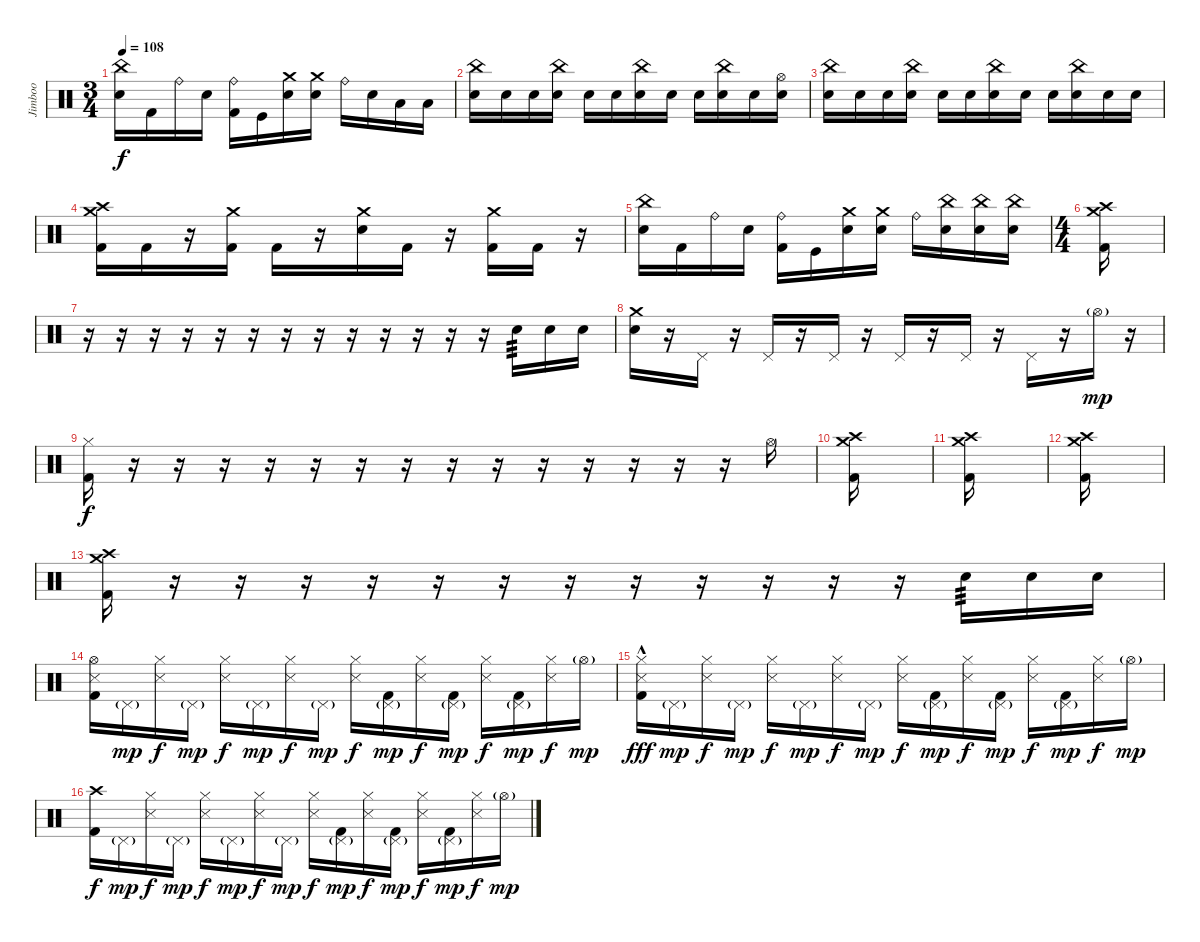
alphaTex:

\track ("Jimboo" "Jimboo") {instrument percussion}
\staff
\articulation defaults
\ts (3 4)
\tempo 108
\clef neutral
\ks c
("Electric Snare (hit)" "China (hit)").16{dy f} "Kick (hit) 2".16 "Ride (bell)".16 "Electric Snare (hit)".16 ("Kick (hit) 2" "Ride (bell)").16 "Kick (hit)".16 ("Electric Snare (hit)" "Crash medium (hit)").16 ("Electric Snare (hit)" "Crash medium (hit)").16 "Ride (bell)".16 "Electric Snare (hit)".16 "Low Tom (hit)".16 "Low Floor Tom (hit)".16 |
("Electric Snare (hit)" "China (hit)").16 "Electric Snare (hit)".16 "Electric Snare (hit)".16 ("Electric Snare (hit)" "China (hit)").16 "Electric Snare (hit)".16 "Electric Snare (hit)".16 ("Electric Snare (hit)" "China (hit)").16 "Electric Snare (hit)".16 "Electric Snare (hit)".16 ("Electric Snare (hit)" "China (hit)").16 "Electric Snare (hit)".16 ("Electric Snare (hit)" "Hi-Hat (open)").16 |
("Electric Snare (hit)" "China (hit)").16 "Electric Snare (hit)".16 "Electric Snare (hit)".16 ("Electric Snare (hit)" "China (hit)").16 "Electric Snare (hit)".16 "Electric Snare (hit)".16 ("Electric Snare (hit)" "China (hit)").16 "Electric Snare (hit)".16 "Electric Snare (hit)".16 ("Electric Snare (hit)" "China (hit)").16 "Electric Snare (hit)".16 "Electric Snare (hit)".16 |
("Kick (hit) 2" "Crash medium (hit)" "Crash high (hit)").16 "Kick (hit) 2".16 r.16 ("Kick (hit) 2" "Crash medium (hit)").16 "Kick (hit) 2".16 r.16 ("Electric Snare (hit)" "Crash medium (hit)").16 "Kick (hit) 2".16 r.16 ("Kick (hit) 2" "Crash medium (hit)").16 "Kick (hit) 2".16 r.16 |
("Electric Snare (hit)" "China (hit)").16 "Kick (hit) 2".16 "Ride (bell)".16 "Electric Snare (hit)".16 ("Kick (hit) 2" "Ride (bell)").16 "Kick (hit)".16 ("Electric Snare (hit)" "Crash medium (hit)").16 ("Electric Snare (hit)" "Crash medium (hit)").16 "Ride (bell)".16 ("Electric Snare (hit)" "China (hit)").16 ("Electric Snare (hit)" "China (hit)").16 ("Electric Snare (hit)" "China (hit)").16 |
\ts (4 4)
("Kick (hit) 2" "Crash medium (hit)" "Crash high (hit)").16 |
r.16 r.16 r.16 r.16 r.16 r.16 r.16 r.16 r.16 r.16 r.16 r.16 r.16 "Electric Snare (hit)".16{tp 3} "Electric Snare (hit)".16 "Electric Snare (hit)".16 |
("Electric Snare (hit)" "Crash medium (hit)").16 r.16 "Pedal Hi-Hat (hit)".16 r.16 "Pedal Hi-Hat (hit)".16 r.16 "Pedal Hi-Hat (hit)".16 r.16 "Pedal Hi-Hat (hit)".16 r.16 "Pedal Hi-Hat (hit)".16 r.16 "Pedal Hi-Hat (hit)".16 r.16 "Hi-Hat (open)"{g}.16{dy mp} r.16 |
("Kick (hit) 2" "Hi-Hat (closed)").16{dy f} r.16 r.16 r.16 r.16 r.16 r.16 r.16 r.16 r.16 r.16 r.16 r.16 r.16 r.16 "Hi-Hat (open)".16 |
("Kick (hit) 2" "Crash medium (hit)" "Crash high (hit)").16 |
("Kick (hit) 2" "Crash medium (hit)" "Crash high (hit)").16 |
("Kick (hit) 2" "Crash medium (hit)" "Crash high (hit)").16 |
("Kick (hit) 2" "Crash medium (hit)" "Crash high (hit)").16 r.16 r.16 r.16 r.16 r.16 r.16 r.16 r.16 r.16 r.16 r.16 r.16 "Electric Snare (hit)".16{tp 3} "Electric Snare (hit)".16 "Electric Snare (hit)".16 |
("Hi-Hat (open)" "Snare (side stick) 3" "Kick (hit) 2").16 "Pedal Hi-Hat (hit)"{g}.16{dy mp} ("Hi-Hat (closed)" "Snare (side stick) 3").16{dy f} "Pedal Hi-Hat (hit)"{g}.16{dy mp} ("Hi-Hat (closed)" "Snare (side stick) 3").16{dy f} "Pedal Hi-Hat (hit)"{g}.16{dy mp} ("Hi-Hat (closed)" "Snare (side stick) 3").16{dy f} "Pedal Hi-Hat (hit)"{g}.16{dy mp} ("Hi-Hat (closed)" "Snare (side stick) 3").16{dy f} ("Pedal Hi-Hat (hit)"{g} "Kick (hit) 2").16{dy mp} ("Hi-Hat (closed)" "Snare (side stick) 3").16{dy f} ("Pedal Hi-Hat (hit)"{g} "Kick (hit) 2").16{dy mp} ("Hi-Hat (closed)" "Snare (side stick) 3").16{dy f} ("Pedal Hi-Hat (hit)"{g} "Kick (hit) 2").16{dy mp} ("Hi-Hat (closed)" "Snare (side stick) 3").16{dy f} "Hi-Hat (open)"{g}.16{dy mp} |
("Hi-Hat (closed)" "Snare (side stick) 3"{hac} "Kick (hit) 2").16{dy fff} "Pedal Hi-Hat (hit)"{g}.16{dy mp} ("Hi-Hat (closed)" "Snare (side stick) 3").16{dy f} "Pedal Hi-Hat (hit)"{g}.16{dy mp} ("Hi-Hat (closed)" "Snare (side stick) 3").16{dy f} "Pedal Hi-Hat (hit)"{g}.16{dy mp} ("Hi-Hat (closed)" "Snare (side stick) 3").16{dy f} "Pedal Hi-Hat (hit)"{g}.16{dy mp} ("Hi-Hat (closed)" "Snare (side stick) 3").16{dy f} ("Pedal Hi-Hat (hit)"{g} "Kick (hit) 2").16{dy mp} ("Hi-Hat (closed)" "Snare (side stick) 3").16{dy f} ("Pedal Hi-Hat (hit)"{g} "Kick (hit) 2").16{dy mp} ("Hi-Hat (closed)" "Snare (side stick) 3").16{dy f} ("Pedal Hi-Hat (hit)"{g} "Kick (hit) 2").16{dy mp} ("Hi-Hat (closed)" "Snare (side stick) 3").16{dy f} "Hi-Hat (open)"{g}.16{dy mp} |
("Crash high (hit)" "Kick (hit) 2").16{dy f} "Pedal Hi-Hat (hit)"{g}.16{dy mp} ("Hi-Hat (closed)" "Snare (side stick) 3").16{dy f} "Pedal Hi-Hat (hit)"{g}.16{dy mp} ("Hi-Hat (closed)" "Snare (side stick) 3").16{dy f} "Pedal Hi-Hat (hit)"{g}.16{dy mp} ("Hi-Hat (closed)" "Snare (side stick) 3").16{dy f} "Pedal Hi-Hat (hit)"{g}.16{dy mp} ("Hi-Hat (closed)" "Snare (side stick) 3").16{dy f} ("Pedal Hi-Hat (hit)"{g} "Kick (hit) 2").16{dy mp} ("Hi-Hat (closed)" "Snare (side stick) 3").16{dy f} ("Pedal Hi-Hat (hit)"{g} "Kick (hit) 2").16{dy mp} ("Hi-Hat (closed)" "Snare (side stick) 3").16{dy f} ("Pedal Hi-Hat (hit)"{g} "Kick (hit) 2").16{dy mp} ("Hi-Hat (closed)" "Snare (side stick) 3").16{dy f} "Hi-Hat (open)"{g}.16{dy mp}
